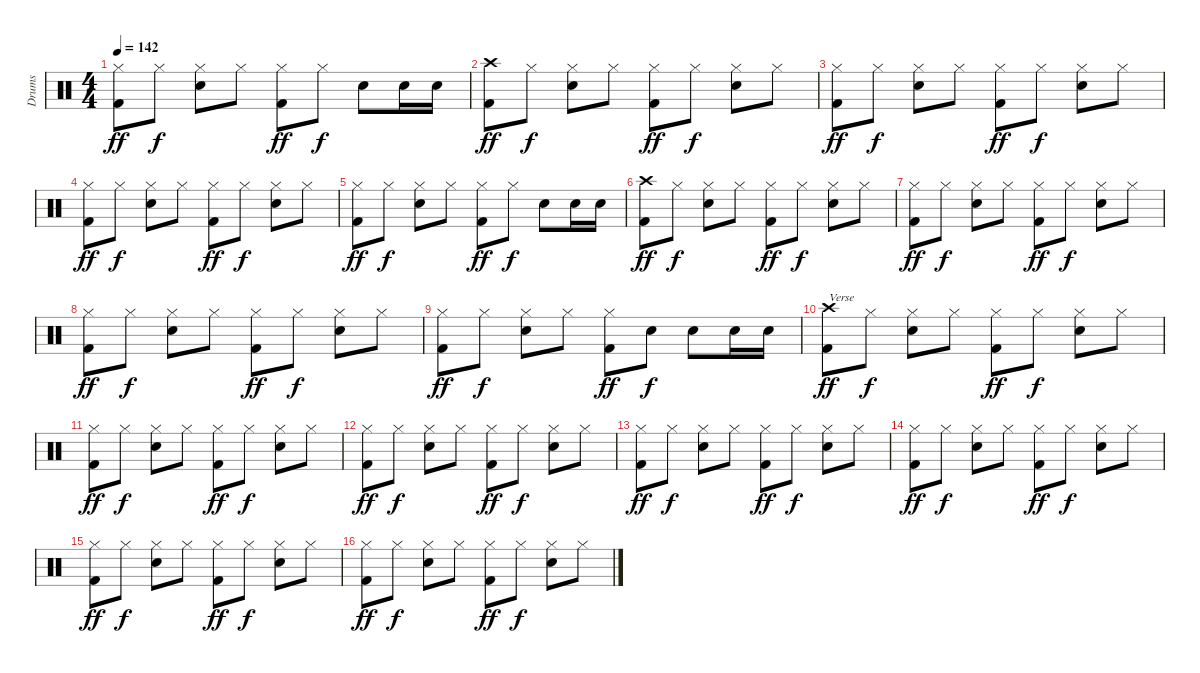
\track ("Drums" "Drums") {instrument percussion}
\staff {score}
\articulation defaults
\ts (4 4)
\tempo 142
\clef neutral
\ks c
("Hi-Hat (closed)" "Kick (hit) 2").8{dy ff} "Hi-Hat (closed)".8{dy f} ("Hi-Hat (closed)" "Snare (hit) 2").8 "Hi-Hat (closed)".8 ("Hi-Hat (closed)" "Kick (hit) 2").8{dy ff} "Hi-Hat (closed)".8{dy f} "Snare (hit) 2".8 "Snare (hit) 2".16 "Snare (hit) 2".16 |
("Crash high (hit)" "Kick (hit) 2").8{dy ff} "Hi-Hat (closed)".8{dy f} ("Hi-Hat (closed)" "Snare (hit) 2").8 "Hi-Hat (closed)".8 ("Hi-Hat (closed)" "Kick (hit) 2").8{dy ff} "Hi-Hat (closed)".8{dy f} ("Hi-Hat (closed)" "Snare (hit) 2").8 "Hi-Hat (closed)".8 |
("Hi-Hat (closed)" "Kick (hit) 2").8{dy ff} "Hi-Hat (closed)".8{dy f} ("Hi-Hat (closed)" "Snare (hit) 2").8 "Hi-Hat (closed)".8 ("Hi-Hat (closed)" "Kick (hit) 2").8{dy ff} "Hi-Hat (closed)".8{dy f} ("Hi-Hat (closed)" "Snare (hit) 2").8 "Hi-Hat (closed)".8 |
("Hi-Hat (closed)" "Kick (hit) 2").8{dy ff} "Hi-Hat (closed)".8{dy f} ("Hi-Hat (closed)" "Snare (hit) 2").8 "Hi-Hat (closed)".8 ("Hi-Hat (closed)" "Kick (hit) 2").8{dy ff} "Hi-Hat (closed)".8{dy f} ("Hi-Hat (closed)" "Snare (hit) 2").8 "Hi-Hat (closed)".8 |
("Hi-Hat (closed)" "Kick (hit) 2").8{dy ff} "Hi-Hat (closed)".8{dy f} ("Hi-Hat (closed)" "Snare (hit) 2").8 "Hi-Hat (closed)".8 ("Hi-Hat (closed)" "Kick (hit) 2").8{dy ff} "Hi-Hat (closed)".8{dy f} "Snare (hit) 2".8 "Snare (hit) 2".16 "Snare (hit) 2".16 |
("Crash high (hit)" "Kick (hit) 2").8{dy ff} "Hi-Hat (closed)".8{dy f} ("Hi-Hat (closed)" "Snare (hit) 2").8 "Hi-Hat (closed)".8 ("Hi-Hat (closed)" "Kick (hit) 2").8{dy ff} "Hi-Hat (closed)".8{dy f} ("Hi-Hat (closed)" "Snare (hit) 2").8 "Hi-Hat (closed)".8 |
("Hi-Hat (closed)" "Kick (hit) 2").8{dy ff} "Hi-Hat (closed)".8{dy f} ("Hi-Hat (closed)" "Snare (hit) 2").8 "Hi-Hat (closed)".8 ("Hi-Hat (closed)" "Kick (hit) 2").8{dy ff} "Hi-Hat (closed)".8{dy f} ("Hi-Hat (closed)" "Snare (hit) 2").8 "Hi-Hat (closed)".8 |
("Hi-Hat (closed)" "Kick (hit) 2").8{dy ff} "Hi-Hat (closed)".8{dy f} ("Hi-Hat (closed)" "Snare (hit) 2").8 "Hi-Hat (closed)".8 ("Hi-Hat (closed)" "Kick (hit) 2").8{dy ff} "Hi-Hat (closed)".8{dy f} ("Hi-Hat (closed)" "Snare (hit) 2").8 "Hi-Hat (closed)".8 |
("Hi-Hat (closed)" "Kick (hit) 2").8{dy ff} "Hi-Hat (closed)".8{dy f} ("Hi-Hat (closed)" "Snare (hit) 2").8 "Hi-Hat (closed)".8 ("Hi-Hat (closed)" "Kick (hit) 2").8{dy ff} "Snare (hit) 2".8{dy f} "Snare (hit) 2".8 "Snare (hit) 2".16 "Snare (hit) 2".16 |
("Crash high (hit)" "Kick (hit) 2").8{txt "Verse" dy ff} "Hi-Hat (closed)".8{dy f} ("Hi-Hat (closed)" "Snare (hit) 2").8 "Hi-Hat (closed)".8 ("Hi-Hat (closed)" "Kick (hit) 2").8{dy ff} "Hi-Hat (closed)".8{dy f} ("Hi-Hat (closed)" "Snare (hit) 2").8 "Hi-Hat (closed)".8 |
("Hi-Hat (closed)" "Kick (hit) 2").8{dy ff} "Hi-Hat (closed)".8{dy f} ("Hi-Hat (closed)" "Snare (hit) 2").8 "Hi-Hat (closed)".8 ("Hi-Hat (closed)" "Kick (hit) 2").8{dy ff} "Hi-Hat (closed)".8{dy f} ("Hi-Hat (closed)" "Snare (hit) 2").8 "Hi-Hat (closed)".8 |
("Hi-Hat (closed)" "Kick (hit) 2").8{dy ff} "Hi-Hat (closed)".8{dy f} ("Hi-Hat (closed)" "Snare (hit) 2").8 "Hi-Hat (closed)".8 ("Hi-Hat (closed)" "Kick (hit) 2").8{dy ff} "Hi-Hat (closed)".8{dy f} ("Hi-Hat (closed)" "Snare (hit) 2").8 "Hi-Hat (closed)".8 |
("Hi-Hat (closed)" "Kick (hit) 2").8{dy ff} "Hi-Hat (closed)".8{dy f} ("Hi-Hat (closed)" "Snare (hit) 2").8 "Hi-Hat (closed)".8 ("Hi-Hat (closed)" "Kick (hit) 2").8{dy ff} "Hi-Hat (closed)".8{dy f} ("Hi-Hat (closed)" "Snare (hit) 2").8 "Hi-Hat (closed)".8 |
("Hi-Hat (closed)" "Kick (hit) 2").8{dy ff} "Hi-Hat (closed)".8{dy f} ("Hi-Hat (closed)" "Snare (hit) 2").8 "Hi-Hat (closed)".8 ("Hi-Hat (closed)" "Kick (hit) 2").8{dy ff} "Hi-Hat (closed)".8{dy f} ("Hi-Hat (closed)" "Snare (hit) 2").8 "Hi-Hat (closed)".8 |
("Hi-Hat (closed)" "Kick (hit) 2").8{dy ff} "Hi-Hat (closed)".8{dy f} ("Hi-Hat (closed)" "Snare (hit) 2").8 "Hi-Hat (closed)".8 ("Hi-Hat (closed)" "Kick (hit) 2").8{dy ff} "Hi-Hat (closed)".8{dy f} ("Hi-Hat (closed)" "Snare (hit) 2").8 "Hi-Hat (closed)".8 |
("Hi-Hat (closed)" "Kick (hit) 2").8{dy ff} "Hi-Hat (closed)".8{dy f} ("Hi-Hat (closed)" "Snare (hit) 2").8 "Hi-Hat (closed)".8 ("Hi-Hat (closed)" "Kick (hit) 2").8{dy ff} "Hi-Hat (closed)".8{dy f} ("Hi-Hat (closed)" "Snare (hit) 2").8 "Hi-Hat (closed)".8
